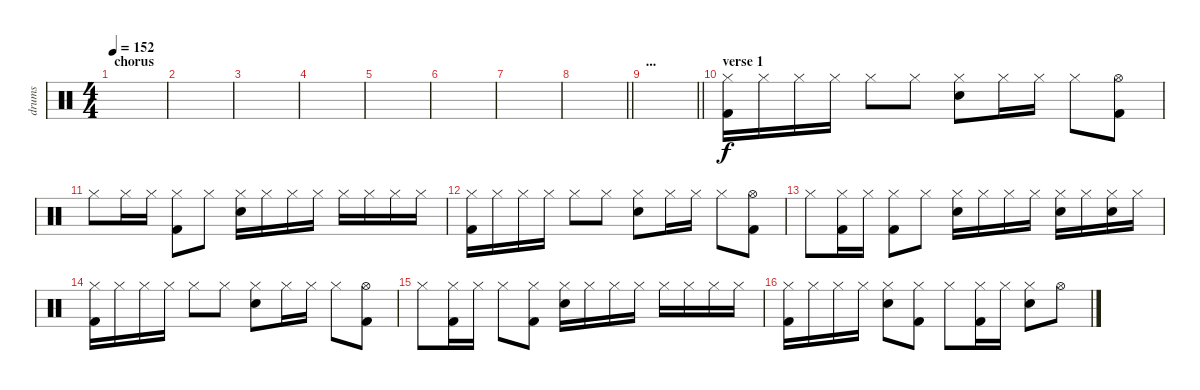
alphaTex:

\track ("drums" "drums") {instrument percussion}
\staff {score}
\articulation defaults
\ts (4 4)
\section ("" "chorus")
\tempo 152
\clef neutral
\ks c
|
|
|
|
|
|
|
\barLineRight lightlight
|
\section ("" "...")
\barLineRight lightlight
|
\section ("" "verse 1")
("Hi-Hat (closed)" "Kick (hit) 2").16 "Hi-Hat (closed)".16 "Hi-Hat (closed)".16 "Hi-Hat (closed)".16 "Hi-Hat (closed)".8 "Hi-Hat (closed)".8 ("Snare (hit) 2" "Hi-Hat (closed)").8 "Hi-Hat (closed)".16 "Hi-Hat (closed)".16 "Hi-Hat (closed)".8 ("Hi-Hat (open)" "Kick (hit) 2").8 |
"Hi-Hat (closed)".8 "Hi-Hat (closed)".16 "Hi-Hat (closed)".16 ("Hi-Hat (closed)" "Kick (hit) 2").8 "Hi-Hat (closed)".8 ("Hi-Hat (closed)" "Snare (hit) 2").16 "Hi-Hat (closed)".16 "Hi-Hat (closed)".16 "Hi-Hat (closed)".16 "Hi-Hat (closed)".16 "Hi-Hat (closed)".16 "Hi-Hat (closed)".16 "Hi-Hat (closed)".16 |
("Hi-Hat (closed)" "Kick (hit) 2").16 "Hi-Hat (closed)".16 "Hi-Hat (closed)".16 "Hi-Hat (closed)".16 "Hi-Hat (closed)".8 "Hi-Hat (closed)".8 ("Snare (hit) 2" "Hi-Hat (closed)").8 "Hi-Hat (closed)".16 "Hi-Hat (closed)".16 "Hi-Hat (closed)".8 ("Hi-Hat (open)" "Kick (hit) 2").8 |
"Hi-Hat (closed)".8 ("Hi-Hat (closed)" "Kick (hit) 2").16 "Hi-Hat (closed)".16 ("Hi-Hat (closed)" "Kick (hit) 2").8 "Hi-Hat (closed)".8 ("Hi-Hat (closed)" "Snare (hit) 2").16 "Hi-Hat (closed)".16 "Hi-Hat (closed)".16 "Hi-Hat (closed)".16 ("Hi-Hat (closed)" "Snare (hit) 2").16 "Hi-Hat (closed)".16 ("Hi-Hat (closed)" "Snare (hit) 2").16 "Hi-Hat (closed)".16 |
("Hi-Hat (closed)" "Kick (hit) 2").16 "Hi-Hat (closed)".16 "Hi-Hat (closed)".16 "Hi-Hat (closed)".16 "Hi-Hat (closed)".8 "Hi-Hat (closed)".8 ("Snare (hit) 2" "Hi-Hat (closed)").8 "Hi-Hat (closed)".16 "Hi-Hat (closed)".16 "Hi-Hat (closed)".8 ("Hi-Hat (open)" "Kick (hit) 2").8 |
"Hi-Hat (closed)".8 ("Hi-Hat (closed)" "Kick (hit) 2").16 "Hi-Hat (closed)".16 "Hi-Hat (closed)".8 ("Hi-Hat (closed)" "Kick (hit) 2").8 ("Hi-Hat (closed)" "Snare (hit) 2").16 "Hi-Hat (closed)".16 "Hi-Hat (closed)".16 "Hi-Hat (closed)".16 "Hi-Hat (closed)".16 "Hi-Hat (closed)".16 "Hi-Hat (closed)".16 "Hi-Hat (closed)".16 |
("Hi-Hat (closed)" "Kick (hit) 2").16 "Hi-Hat (closed)".16 "Hi-Hat (closed)".16 "Hi-Hat (closed)".16 ("Hi-Hat (closed)" "Snare (hit) 2").8 ("Hi-Hat (closed)" "Kick (hit) 2").8 "Hi-Hat (closed)".8 ("Hi-Hat (closed)" "Kick (hit) 2").16 "Hi-Hat (closed)".16 ("Hi-Hat (closed)" "Snare (hit) 2").8 "Hi-Hat (open)".8
